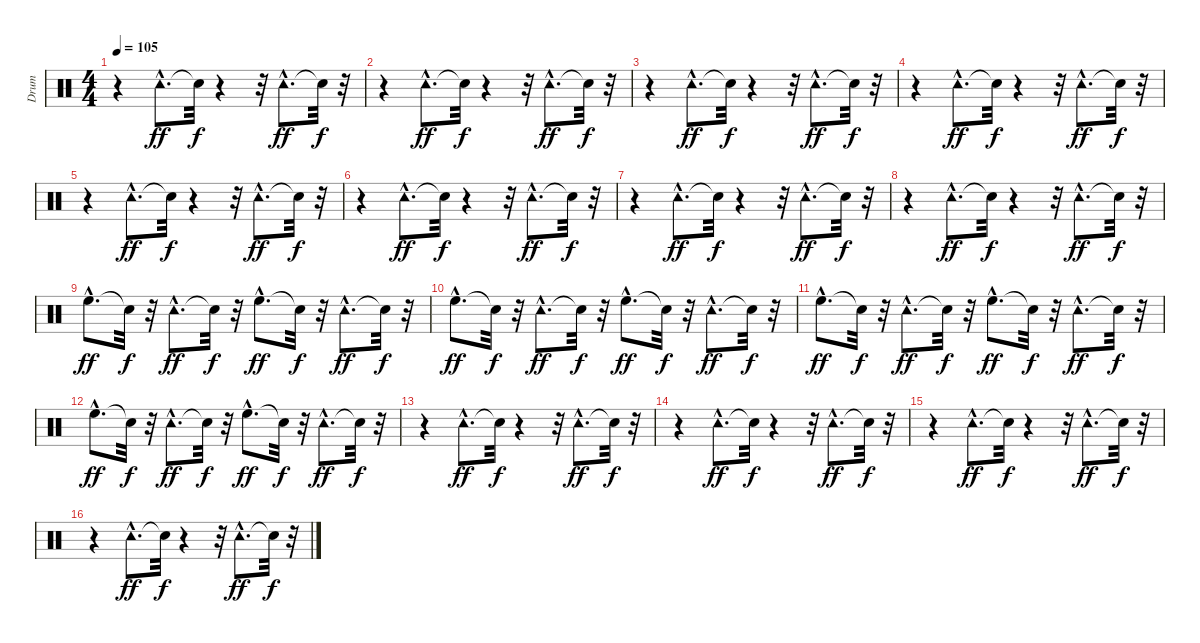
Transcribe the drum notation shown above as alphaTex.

\track ("Drum" "Drum") {instrument percussion}
\staff {score}
\articulation defaults
\ts (4 4)
\tempo 105
\clef neutral
\ks c
r.4{dy f} "Tambourine (hit)"{hac}.8{d dy ff} "Snare (hit)"{t}.32{dy f} r.4 r.32 "Tambourine (hit)"{hac}.8{d dy ff} "Snare (hit)"{t}.32{dy f} r.32 |
r.4 "Tambourine (hit)"{hac}.8{d dy ff} "Snare (hit)"{t}.32{dy f} r.4 r.32 "Tambourine (hit)"{hac}.8{d dy ff} "Snare (hit)"{t}.32{dy f} r.32 |
r.4 "Tambourine (hit)"{hac}.8{d dy ff} "Snare (hit)"{t}.32{dy f} r.4 r.32 "Tambourine (hit)"{hac}.8{d dy ff} "Snare (hit)"{t}.32{dy f} r.32 |
r.4 "Tambourine (hit)"{hac}.8{d dy ff} "Snare (hit)"{t}.32{dy f} r.4 r.32 "Tambourine (hit)"{hac}.8{d dy ff} "Snare (hit)"{t}.32{dy f} r.32 |
r.4 "Tambourine (hit)"{hac}.8{d dy ff} "Snare (hit)"{t}.32{dy f} r.4 r.32 "Tambourine (hit)"{hac}.8{d dy ff} "Snare (hit)"{t}.32{dy f} r.32 |
r.4 "Tambourine (hit)"{hac}.8{d dy ff} "Snare (hit)"{t}.32{dy f} r.4 r.32 "Tambourine (hit)"{hac}.8{d dy ff} "Snare (hit)"{t}.32{dy f} r.32 |
r.4 "Tambourine (hit)"{hac}.8{d dy ff} "Snare (hit)"{t}.32{dy f} r.4 r.32 "Tambourine (hit)"{hac}.8{d dy ff} "Snare (hit)"{t}.32{dy f} r.32 |
r.4 "Tambourine (hit)"{hac}.8{d dy ff} "Snare (hit)"{t}.32{dy f} r.4 r.32 "Tambourine (hit)"{hac}.8{d dy ff} "Snare (hit)"{t}.32{dy f} r.32 |
"High Floor Tom (hit)"{hac}.8{d dy ff} "Snare (hit)"{t}.32{dy f} r.32 "Tambourine (hit)"{hac}.8{d dy ff} "Snare (hit)"{t}.32{dy f} r.32 "High Floor Tom (hit)"{hac}.8{d dy ff} "Snare (hit)"{t}.32{dy f} r.32 "Tambourine (hit)"{hac}.8{d dy ff} "Snare (hit)"{t}.32{dy f} r.32 |
"High Floor Tom (hit)"{hac}.8{d dy ff} "Snare (hit)"{t}.32{dy f} r.32 "Tambourine (hit)"{hac}.8{d dy ff} "Snare (hit)"{t}.32{dy f} r.32 "High Floor Tom (hit)"{hac}.8{d dy ff} "Snare (hit)"{t}.32{dy f} r.32 "Tambourine (hit)"{hac}.8{d dy ff} "Snare (hit)"{t}.32{dy f} r.32 |
"High Floor Tom (hit)"{hac}.8{d dy ff} "Snare (hit)"{t}.32{dy f} r.32 "Tambourine (hit)"{hac}.8{d dy ff} "Snare (hit)"{t}.32{dy f} r.32 "High Floor Tom (hit)"{hac}.8{d dy ff} "Snare (hit)"{t}.32{dy f} r.32 "Tambourine (hit)"{hac}.8{d dy ff} "Snare (hit)"{t}.32{dy f} r.32 |
"High Floor Tom (hit)"{hac}.8{d dy ff} "Snare (hit)"{t}.32{dy f} r.32 "Tambourine (hit)"{hac}.8{d dy ff} "Snare (hit)"{t}.32{dy f} r.32 "High Floor Tom (hit)"{hac}.8{d dy ff} "Snare (hit)"{t}.32{dy f} r.32 "Tambourine (hit)"{hac}.8{d dy ff} "Snare (hit)"{t}.32{dy f} r.32 |
r.4 "Tambourine (hit)"{hac}.8{d dy ff} "Snare (hit)"{t}.32{dy f} r.4 r.32 "Tambourine (hit)"{hac}.8{d dy ff} "Snare (hit)"{t}.32{dy f} r.32 |
r.4 "Tambourine (hit)"{hac}.8{d dy ff} "Snare (hit)"{t}.32{dy f} r.4 r.32 "Tambourine (hit)"{hac}.8{d dy ff} "Snare (hit)"{t}.32{dy f} r.32 |
r.4 "Tambourine (hit)"{hac}.8{d dy ff} "Snare (hit)"{t}.32{dy f} r.4 r.32 "Tambourine (hit)"{hac}.8{d dy ff} "Snare (hit)"{t}.32{dy f} r.32 |
r.4 "Tambourine (hit)"{hac}.8{d dy ff} "Snare (hit)"{t}.32{dy f} r.4 r.32 "Tambourine (hit)"{hac}.8{d dy ff} "Snare (hit)"{t}.32{dy f} r.32
